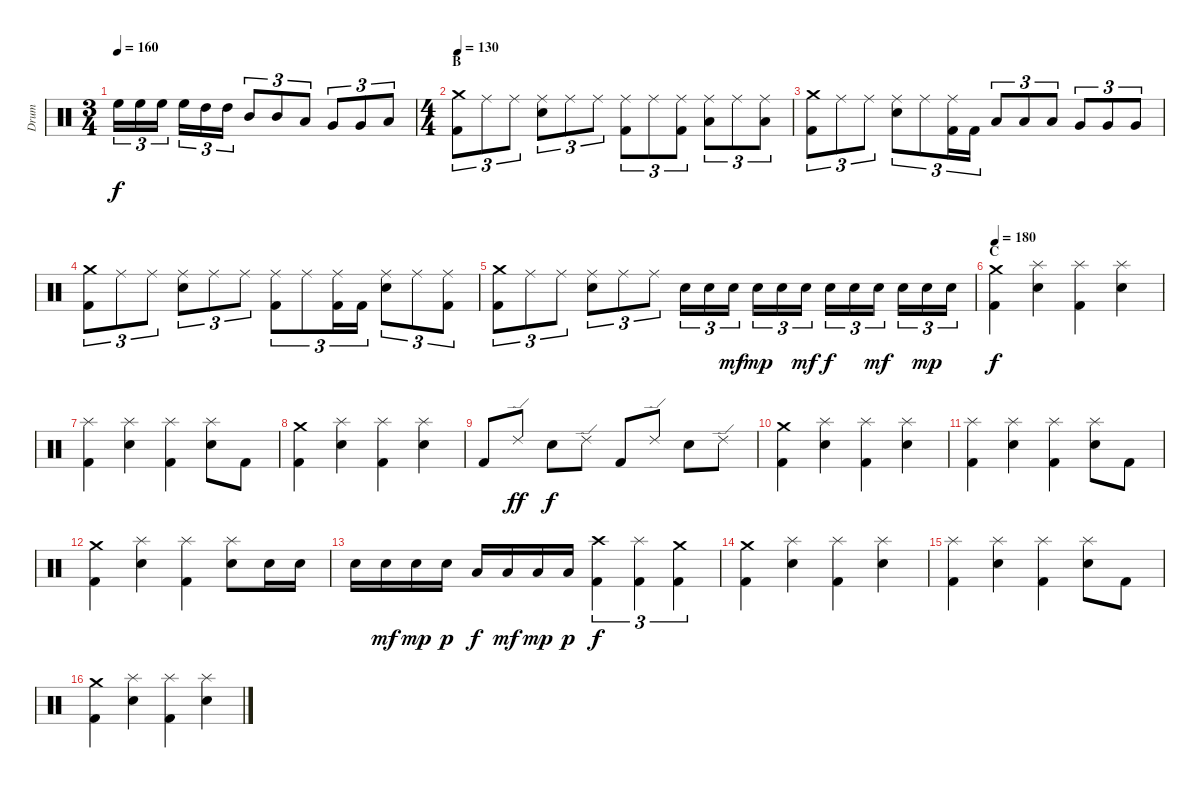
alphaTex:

\track ("Drum" "Drum") {instrument percussion}
\staff {score}
\articulation defaults
\ts (3 4)
\tempo 160
\clef neutral
\ks c "High Floor Tom (hit)".16{tu (3 2) dy f} "High Floor Tom (hit)".16{tu (3 2)} "High Floor Tom (hit)".16{tu (3 2)} "High Floor Tom (hit)".16{tu (3 2)} "High Tom (hit)".16{tu (3 2)} "High Tom (hit)".16{tu (3 2)} "Mid Tom (hit)".8{tu (3 2)} "Mid Tom (hit)".8{tu (3 2)} "Low Tom (hit)".8{tu (3 2)} "Very Low Tom (hit)".8{tu (3 2)} "Very Low Tom (hit)".8{tu (3 2)} "Low Floor Tom (hit)".8{tu (3 2)}
|
\ts (4 4)
\section ("" "B")
\tempo 130
("Crash medium (hit)" "Kick (hit) 2").8{tu (3 2)} "Ride (middle)".8{tu (3 2)} "Ride (middle)".8{tu (3 2)} ("Ride (middle)" "Electric Snare (hit)").8{tu (3 2)} "Ride (middle)".8{tu (3 2)} "Ride (middle)".8{tu (3 2)} ("Ride (middle)" "Kick (hit) 2").8{tu (3 2)} "Ride (middle)".8{tu (3 2)} ("Ride (middle)" "Kick (hit) 2").8{tu (3 2)} ("Ride (middle)" "Low Tom (hit)").8{tu (3 2)} "Ride (middle)".8{tu (3 2)} ("Ride (middle)" "Low Tom (hit)").8{tu (3 2)} |
("Crash medium (hit)" "Kick (hit) 2").8{tu (3 2)} "Ride (middle)".8{tu (3 2)} "Ride (middle)".8{tu (3 2)} ("Ride (middle)" "Electric Snare (hit)").8{tu (3 2)} "Ride (middle)".8{tu (3 2)} ("Ride (middle)" "Kick (hit) 2").16{tu (3 2)} "Kick (hit) 2".16{tu (3 2)} "Low Tom (hit)".8{tu (3 2)} "Low Tom (hit)".8{tu (3 2)} "Low Tom (hit)".8{tu (3 2)} "Very Low Tom (hit)".8{tu (3 2)} "Very Low Tom (hit)".8{tu (3 2)} "Very Low Tom (hit)".8{tu (3 2)} |
("Crash medium (hit)" "Kick (hit) 2").8{tu (3 2)} "Ride (middle)".8{tu (3 2)} "Ride (middle)".8{tu (3 2)} ("Ride (middle)" "Electric Snare (hit)").8{tu (3 2)} "Ride (middle)".8{tu (3 2)} "Ride (middle)".8{tu (3 2)} ("Ride (middle)" "Kick (hit) 2").8{tu (3 2)} "Ride (middle)".8{tu (3 2)} ("Ride (middle)" "Kick (hit) 2").16{tu (3 2)} "Kick (hit) 2".16{tu (3 2)} ("Ride (middle)" "Electric Snare (hit)").8{tu (3 2)} "Ride (middle)".8{tu (3 2)} ("Ride (middle)" "Kick (hit) 2").8{tu (3 2)} |
("Crash medium (hit)" "Kick (hit) 2").8{tu (3 2)} "Ride (middle)".8{tu (3 2)} "Ride (middle)".8{tu (3 2)} ("Ride (middle)" "Electric Snare (hit)").8{tu (3 2)} "Ride (middle)".8{tu (3 2)} "Ride (middle)".8{tu (3 2)} "Electric Snare (hit)".16{tu (3 2)} "Electric Snare (hit)".16{tu (3 2)} "Electric Snare (hit)".16{tu (3 2) dy mf} "Electric Snare (hit)".16{tu (3 2) dy mp} "Electric Snare (hit)".16{tu (3 2)} "Electric Snare (hit)".16{tu (3 2) dy mf} "Electric Snare (hit)".16{tu (3 2) dy f} "Electric Snare (hit)".16{tu (3 2)} "Electric Snare (hit)".16{tu (3 2) dy mf} "Electric Snare (hit)".16{tu (3 2)} "Electric Snare (hit)".16{tu (3 2) dy mp} "Electric Snare (hit)".16{tu (3 2)} |
\section ("" "C")
\tempo 180
("Crash medium (hit)" "Kick (hit) 2").4{dy f} ("Splash (hit)" "Electric Snare (hit)").4 ("Splash (hit)" "Kick (hit) 2").4 ("Splash (hit)" "Electric Snare (hit)").4 |
("Splash (hit)" "Kick (hit) 2").4 ("Splash (hit)" "Electric Snare (hit)").4 ("Splash (hit)" "Kick (hit) 2").4 ("Splash (hit)" "Electric Snare (hit)").8 "Kick (hit) 2".8 |
("Crash medium (hit)" "Kick (hit) 2").4 ("Splash (hit)" "Electric Snare (hit)").4 ("Splash (hit)" "Kick (hit) 2").4 ("Splash (hit)" "Electric Snare (hit)").4 |
"Kick (hit) 2".8 "Ride (edge) 2".8{dy ff} "Electric Snare (hit)".8{dy f} "Ride (edge) 2".8 "Kick (hit) 2".8 "Ride (edge) 2".8 "Electric Snare (hit)".8 "Ride (edge) 2".8 |
("Crash medium (hit)" "Kick (hit) 2").4 ("Splash (hit)" "Electric Snare (hit)").4 ("Splash (hit)" "Kick (hit) 2").4 ("Splash (hit)" "Electric Snare (hit)").4 |
("Splash (hit)" "Kick (hit) 2").4 ("Splash (hit)" "Electric Snare (hit)").4 ("Splash (hit)" "Kick (hit) 2").4 ("Splash (hit)" "Electric Snare (hit)").8 "Kick (hit) 2".8 |
("Crash medium (hit)" "Kick (hit) 2").4 ("Splash (hit)" "Electric Snare (hit)").4 ("Splash (hit)" "Kick (hit) 2").4 ("Splash (hit)" "Electric Snare (hit)").8 "Electric Snare (hit)".16 "Electric Snare (hit)".16 |
"Electric Snare (hit)".16 "Electric Snare (hit)".16{dy mf} "Electric Snare (hit)".16{dy mp} "Electric Snare (hit)".16{dy p} "Low Tom (hit)".16{dy f} "Low Tom (hit)".16{dy mf} "Low Tom (hit)".16{dy mp} "Low Tom (hit)".16{dy p} ("Crash high (hit)" "Kick (hit) 2").4{tu (3 2) dy f} ("Splash (hit)" "Kick (hit) 2").4{tu (3 2)} ("Crash medium (hit)" "Kick (hit) 2").4{tu (3 2)} |
("Crash medium (hit)" "Kick (hit) 2").4 ("Splash (hit)" "Electric Snare (hit)").4 ("Splash (hit)" "Kick (hit) 2").4 ("Splash (hit)" "Electric Snare (hit)").4 |
("Splash (hit)" "Kick (hit) 2").4 ("Splash (hit)" "Electric Snare (hit)").4 ("Splash (hit)" "Kick (hit) 2").4 ("Splash (hit)" "Electric Snare (hit)").8 "Kick (hit) 2".8 |
("Crash medium (hit)" "Kick (hit) 2").4 ("Splash (hit)" "Electric Snare (hit)").4 ("Splash (hit)" "Kick (hit) 2").4 ("Splash (hit)" "Electric Snare (hit)").4
